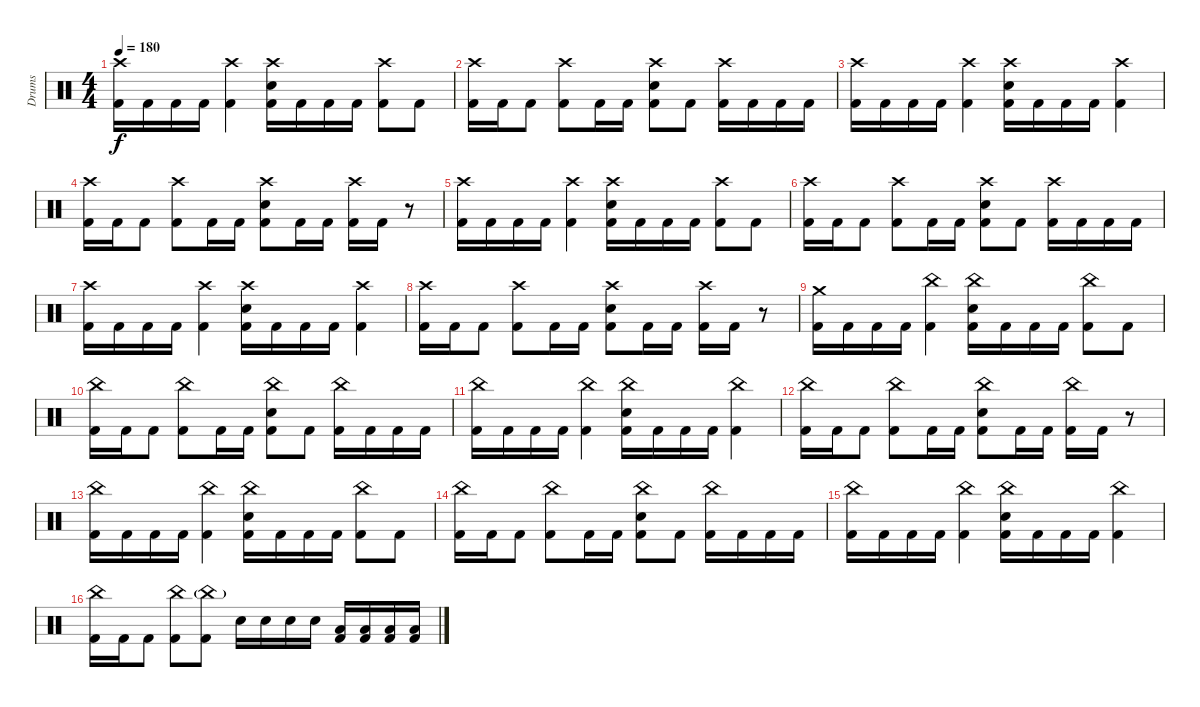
\track ("Drums" "Drums") {instrument percussion}
\staff {score}
\articulation defaults
\ts (4 4)
\tempo 180
\clef neutral
\ks c
("Crash high (hit)" "Kick (hit) 2").16{dy f} "Kick (hit) 2".16 "Kick (hit) 2".16 "Kick (hit) 2".16 ("Crash high (hit)" "Kick (hit) 2").4 ("Crash high (hit)" "Electric Snare (hit)" "Kick (hit) 2").16 "Kick (hit) 2".16 "Kick (hit) 2".16 "Kick (hit) 2".16 ("Crash high (hit)" "Kick (hit) 2").8 "Kick (hit) 2".8 |
("Crash high (hit)" "Kick (hit) 2").16 "Kick (hit) 2".16 "Kick (hit) 2".8 ("Crash high (hit)" "Kick (hit) 2").8 "Kick (hit) 2".16 "Kick (hit) 2".16 ("Crash high (hit)" "Electric Snare (hit)" "Kick (hit) 2").8 "Kick (hit) 2".8 ("Crash high (hit)" "Kick (hit) 2").16 "Kick (hit) 2".16 "Kick (hit) 2".16 "Kick (hit) 2".16 |
("Crash high (hit)" "Kick (hit) 2").16 "Kick (hit) 2".16 "Kick (hit) 2".16 "Kick (hit) 2".16 ("Crash high (hit)" "Kick (hit) 2").4 ("Crash high (hit)" "Electric Snare (hit)" "Kick (hit) 2").16 "Kick (hit) 2".16 "Kick (hit) 2".16 "Kick (hit) 2".16 ("Crash high (hit)" "Kick (hit) 2").4 |
("Crash high (hit)" "Kick (hit) 2").16 "Kick (hit) 2".16 "Kick (hit) 2".8 ("Crash high (hit)" "Kick (hit) 2").8 "Kick (hit) 2".16 "Kick (hit) 2".16 ("Crash high (hit)" "Electric Snare (hit)" "Kick (hit) 2").8 "Kick (hit) 2".16 "Kick (hit) 2".16 ("Crash high (hit)" "Kick (hit) 2").16 "Kick (hit) 2".16 r.8 |
("Crash high (hit)" "Kick (hit) 2").16 "Kick (hit) 2".16 "Kick (hit) 2".16 "Kick (hit) 2".16 ("Crash high (hit)" "Kick (hit) 2").4 ("Crash high (hit)" "Electric Snare (hit)" "Kick (hit) 2").16 "Kick (hit) 2".16 "Kick (hit) 2".16 "Kick (hit) 2".16 ("Crash high (hit)" "Kick (hit) 2").8 "Kick (hit) 2".8 |
("Crash high (hit)" "Kick (hit) 2").16 "Kick (hit) 2".16 "Kick (hit) 2".8 ("Crash high (hit)" "Kick (hit) 2").8 "Kick (hit) 2".16 "Kick (hit) 2".16 ("Crash high (hit)" "Electric Snare (hit)" "Kick (hit) 2").8 "Kick (hit) 2".8 ("Crash high (hit)" "Kick (hit) 2").16 "Kick (hit) 2".16 "Kick (hit) 2".16 "Kick (hit) 2".16 |
("Crash high (hit)" "Kick (hit) 2").16 "Kick (hit) 2".16 "Kick (hit) 2".16 "Kick (hit) 2".16 ("Crash high (hit)" "Kick (hit) 2").4 ("Crash high (hit)" "Electric Snare (hit)" "Kick (hit) 2").16 "Kick (hit) 2".16 "Kick (hit) 2".16 "Kick (hit) 2".16 ("Crash high (hit)" "Kick (hit) 2").4 |
("Crash high (hit)" "Kick (hit) 2").16 "Kick (hit) 2".16 "Kick (hit) 2".8 ("Crash high (hit)" "Kick (hit) 2").8 "Kick (hit) 2".16 "Kick (hit) 2".16 ("Crash high (hit)" "Electric Snare (hit)" "Kick (hit) 2").8 "Kick (hit) 2".16 "Kick (hit) 2".16 ("Crash high (hit)" "Kick (hit) 2").16 "Kick (hit) 2".16 r.8 |
("Crash medium (hit)" "Kick (hit) 2").16 "Kick (hit) 2".16 "Kick (hit) 2".16 "Kick (hit) 2".16 ("China (hit)" "Kick (hit) 2").4 ("China (hit)" "Electric Snare (hit)" "Kick (hit) 2").16 "Kick (hit) 2".16 "Kick (hit) 2".16 "Kick (hit) 2".16 ("China (hit)" "Kick (hit) 2").8 "Kick (hit) 2".8 |
("China (hit)" "Kick (hit) 2").16 "Kick (hit) 2".16 "Kick (hit) 2".8 ("China (hit)" "Kick (hit) 2").8 "Kick (hit) 2".16 "Kick (hit) 2".16 ("China (hit)" "Electric Snare (hit)" "Kick (hit) 2").8 "Kick (hit) 2".8 ("China (hit)" "Kick (hit) 2").16 "Kick (hit) 2".16 "Kick (hit) 2".16 "Kick (hit) 2".16 |
("China (hit)" "Kick (hit) 2").16 "Kick (hit) 2".16 "Kick (hit) 2".16 "Kick (hit) 2".16 ("China (hit)" "Kick (hit) 2").4 ("China (hit)" "Electric Snare (hit)" "Kick (hit) 2").16 "Kick (hit) 2".16 "Kick (hit) 2".16 "Kick (hit) 2".16 ("China (hit)" "Kick (hit) 2").4 |
("China (hit)" "Kick (hit) 2").16 "Kick (hit) 2".16 "Kick (hit) 2".8 ("China (hit)" "Kick (hit) 2").8 "Kick (hit) 2".16 "Kick (hit) 2".16 ("China (hit)" "Electric Snare (hit)" "Kick (hit) 2").8 "Kick (hit) 2".16 "Kick (hit) 2".16 ("China (hit)" "Kick (hit) 2").16 "Kick (hit) 2".16 r.8 |
("China (hit)" "Kick (hit) 2").16 "Kick (hit) 2".16 "Kick (hit) 2".16 "Kick (hit) 2".16 ("China (hit)" "Kick (hit) 2").4 ("China (hit)" "Electric Snare (hit)" "Kick (hit) 2").16 "Kick (hit) 2".16 "Kick (hit) 2".16 "Kick (hit) 2".16 ("China (hit)" "Kick (hit) 2").8 "Kick (hit) 2".8 |
("China (hit)" "Kick (hit) 2").16 "Kick (hit) 2".16 "Kick (hit) 2".8 ("China (hit)" "Kick (hit) 2").8 "Kick (hit) 2".16 "Kick (hit) 2".16 ("China (hit)" "Electric Snare (hit)" "Kick (hit) 2").8 "Kick (hit) 2".8 ("China (hit)" "Kick (hit) 2").16 "Kick (hit) 2".16 "Kick (hit) 2".16 "Kick (hit) 2".16 |
("China (hit)" "Kick (hit) 2").16 "Kick (hit) 2".16 "Kick (hit) 2".16 "Kick (hit) 2".16 ("China (hit)" "Kick (hit) 2").4 ("China (hit)" "Electric Snare (hit)" "Kick (hit) 2").16 "Kick (hit) 2".16 "Kick (hit) 2".16 "Kick (hit) 2".16 ("China (hit)" "Kick (hit) 2").4 |
("China (hit)" "Kick (hit) 2").16 "Kick (hit) 2".16 "Kick (hit) 2".8 ("China (hit)" "Kick (hit) 2").8 ("China (hit)"{g} "Kick (hit) 2").8 "Electric Snare (hit)".16 "Electric Snare (hit)".16 "Electric Snare (hit)".16 "Electric Snare (hit)".16 ("Low Tom (hit)" "Kick (hit) 2").16 ("Low Tom (hit)" "Kick (hit) 2").16 ("Low Tom (hit)" "Kick (hit) 2").16 ("Low Tom (hit)" "Kick (hit) 2").16
